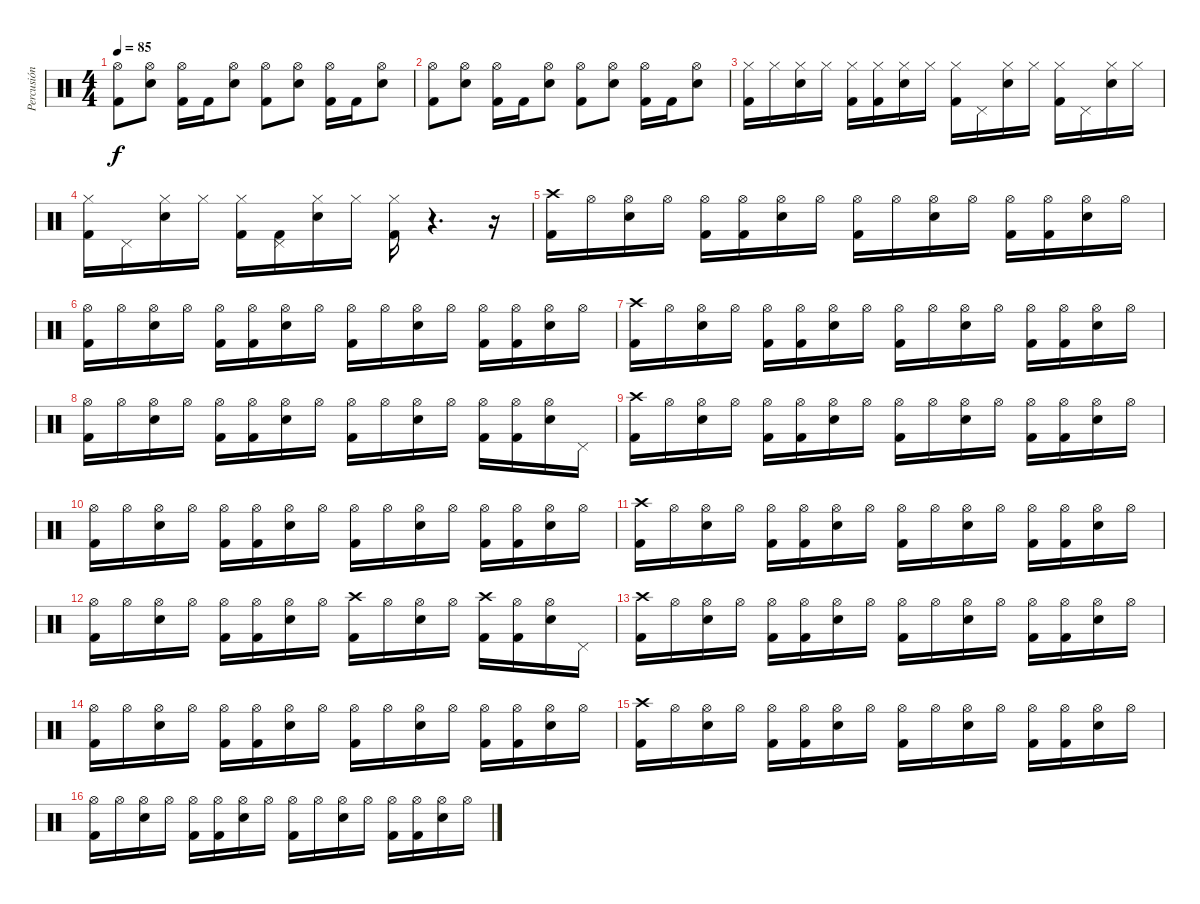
\track ("Percusión" "Percusión") {instrument percussion}
\staff {score}
\articulation defaults
\ts (4 4)
\tempo 85
\clef neutral
\ks c
("Hi-Hat (open)" "Kick (hit) 2").8{dy f} ("Hi-Hat (open)" "Electric Snare (hit)").8 ("Hi-Hat (open)" "Kick (hit) 2").16 "Kick (hit) 2".16 ("Hi-Hat (open)" "Electric Snare (hit)").8 ("Hi-Hat (open)" "Kick (hit) 2").8 ("Hi-Hat (open)" "Electric Snare (hit)").8 ("Hi-Hat (open)" "Kick (hit) 2").16 "Kick (hit) 2".16 ("Hi-Hat (open)" "Electric Snare (hit)").8 |
("Hi-Hat (open)" "Kick (hit) 2").8 ("Hi-Hat (open)" "Electric Snare (hit)").8 ("Hi-Hat (open)" "Kick (hit) 2").16 "Kick (hit) 2".16 ("Hi-Hat (open)" "Electric Snare (hit)").8 ("Hi-Hat (open)" "Kick (hit) 2").8 ("Hi-Hat (open)" "Electric Snare (hit)").8 ("Hi-Hat (open)" "Kick (hit) 2").16 "Kick (hit) 2".16 ("Hi-Hat (open)" "Electric Snare (hit)").8 |
("Hi-Hat (closed)" "Kick (hit) 2").16 "Hi-Hat (closed)".16 ("Hi-Hat (closed)" "Electric Snare (hit)").16 "Hi-Hat (closed)".16 ("Hi-Hat (closed)" "Kick (hit) 2").16 ("Hi-Hat (closed)" "Kick (hit) 2").16 ("Hi-Hat (closed)" "Electric Snare (hit)").16 "Hi-Hat (closed)".16 ("Hi-Hat (closed)" "Kick (hit) 2").16 "Pedal Hi-Hat (hit)".16 ("Hi-Hat (closed)" "Electric Snare (hit)").16 "Hi-Hat (closed)".16 ("Hi-Hat (closed)" "Kick (hit) 2").16 "Pedal Hi-Hat (hit)".16 ("Hi-Hat (closed)" "Electric Snare (hit)").16 "Hi-Hat (closed)".16 |
("Hi-Hat (closed)" "Kick (hit) 2").16 "Pedal Hi-Hat (hit)".16 ("Hi-Hat (closed)" "Electric Snare (hit)").16 "Hi-Hat (closed)".16 ("Hi-Hat (closed)" "Kick (hit) 2").16 ("Pedal Hi-Hat (hit)" "Kick (hit) 2").16 ("Hi-Hat (closed)" "Electric Snare (hit)").16 "Hi-Hat (closed)".16 ("Hi-Hat (closed)" "Kick (hit) 2").16 r.4{d} r.16 |
("Crash high (hit)" "Kick (hit) 2").16 "Hi-Hat (open)".16 ("Hi-Hat (open)" "Electric Snare (hit)").16 "Hi-Hat (open)".16 ("Hi-Hat (open)" "Kick (hit) 2").16 ("Hi-Hat (open)" "Kick (hit) 2").16 ("Hi-Hat (open)" "Electric Snare (hit)").16 "Hi-Hat (open)".16 ("Hi-Hat (open)" "Kick (hit) 2").16 "Hi-Hat (open)".16 ("Hi-Hat (open)" "Electric Snare (hit)").16 "Hi-Hat (open)".16 ("Hi-Hat (open)" "Kick (hit) 2").16 ("Hi-Hat (open)" "Kick (hit) 2").16 ("Hi-Hat (open)" "Electric Snare (hit)").16 "Hi-Hat (open)".16 |
("Hi-Hat (open)" "Kick (hit) 2").16 "Hi-Hat (open)".16 ("Hi-Hat (open)" "Electric Snare (hit)").16 "Hi-Hat (open)".16 ("Hi-Hat (open)" "Kick (hit) 2").16 ("Hi-Hat (open)" "Kick (hit) 2").16 ("Hi-Hat (open)" "Electric Snare (hit)").16 "Hi-Hat (open)".16 ("Hi-Hat (open)" "Kick (hit) 2").16 "Hi-Hat (open)".16 ("Hi-Hat (open)" "Electric Snare (hit)").16 "Hi-Hat (open)".16 ("Hi-Hat (open)" "Kick (hit) 2").16 ("Hi-Hat (open)" "Kick (hit) 2").16 ("Hi-Hat (open)" "Electric Snare (hit)").16 "Hi-Hat (open)".16 |
("Crash high (hit)" "Kick (hit) 2").16 "Hi-Hat (open)".16 ("Hi-Hat (open)" "Electric Snare (hit)").16 "Hi-Hat (open)".16 ("Hi-Hat (open)" "Kick (hit) 2").16 ("Hi-Hat (open)" "Kick (hit) 2").16 ("Hi-Hat (open)" "Electric Snare (hit)").16 "Hi-Hat (open)".16 ("Hi-Hat (open)" "Kick (hit) 2").16 "Hi-Hat (open)".16 ("Hi-Hat (open)" "Electric Snare (hit)").16 "Hi-Hat (open)".16 ("Hi-Hat (open)" "Kick (hit) 2").16 ("Hi-Hat (open)" "Kick (hit) 2").16 ("Hi-Hat (open)" "Electric Snare (hit)").16 "Hi-Hat (open)".16 |
("Hi-Hat (open)" "Kick (hit) 2").16 "Hi-Hat (open)".16 ("Hi-Hat (open)" "Electric Snare (hit)").16 "Hi-Hat (open)".16 ("Hi-Hat (open)" "Kick (hit) 2").16 ("Hi-Hat (open)" "Kick (hit) 2").16 ("Hi-Hat (open)" "Electric Snare (hit)").16 "Hi-Hat (open)".16 ("Hi-Hat (open)" "Kick (hit) 2").16 "Hi-Hat (open)".16 ("Hi-Hat (open)" "Electric Snare (hit)").16 "Hi-Hat (open)".16 ("Hi-Hat (open)" "Kick (hit) 2").16 ("Hi-Hat (open)" "Kick (hit) 2").16 ("Hi-Hat (open)" "Electric Snare (hit)").16 "Pedal Hi-Hat (hit)".16 |
("Crash high (hit)" "Kick (hit) 2").16 "Hi-Hat (open)".16 ("Hi-Hat (open)" "Electric Snare (hit)").16 "Hi-Hat (open)".16 ("Hi-Hat (open)" "Kick (hit) 2").16 ("Hi-Hat (open)" "Kick (hit) 2").16 ("Hi-Hat (open)" "Electric Snare (hit)").16 "Hi-Hat (open)".16 ("Hi-Hat (open)" "Kick (hit) 2").16 "Hi-Hat (open)".16 ("Hi-Hat (open)" "Electric Snare (hit)").16 "Hi-Hat (open)".16 ("Hi-Hat (open)" "Kick (hit) 2").16 ("Hi-Hat (open)" "Kick (hit) 2").16 ("Hi-Hat (open)" "Electric Snare (hit)").16 "Hi-Hat (open)".16 |
("Hi-Hat (open)" "Kick (hit) 2").16 "Hi-Hat (open)".16 ("Hi-Hat (open)" "Electric Snare (hit)").16 "Hi-Hat (open)".16 ("Hi-Hat (open)" "Kick (hit) 2").16 ("Hi-Hat (open)" "Kick (hit) 2").16 ("Hi-Hat (open)" "Electric Snare (hit)").16 "Hi-Hat (open)".16 ("Hi-Hat (open)" "Kick (hit) 2").16 "Hi-Hat (open)".16 ("Hi-Hat (open)" "Electric Snare (hit)").16 "Hi-Hat (open)".16 ("Hi-Hat (open)" "Kick (hit) 2").16 ("Hi-Hat (open)" "Kick (hit) 2").16 ("Hi-Hat (open)" "Electric Snare (hit)").16 "Hi-Hat (open)".16 |
("Crash high (hit)" "Kick (hit) 2").16 "Hi-Hat (open)".16 ("Hi-Hat (open)" "Electric Snare (hit)").16 "Hi-Hat (open)".16 ("Hi-Hat (open)" "Kick (hit) 2").16 ("Hi-Hat (open)" "Kick (hit) 2").16 ("Hi-Hat (open)" "Electric Snare (hit)").16 "Hi-Hat (open)".16 ("Hi-Hat (open)" "Kick (hit) 2").16 "Hi-Hat (open)".16 ("Hi-Hat (open)" "Electric Snare (hit)").16 "Hi-Hat (open)".16 ("Hi-Hat (open)" "Kick (hit) 2").16 ("Hi-Hat (open)" "Kick (hit) 2").16 ("Hi-Hat (open)" "Electric Snare (hit)").16 "Hi-Hat (open)".16 |
("Hi-Hat (open)" "Kick (hit) 2").16 "Hi-Hat (open)".16 ("Hi-Hat (open)" "Electric Snare (hit)").16 "Hi-Hat (open)".16 ("Hi-Hat (open)" "Kick (hit) 2").16 ("Hi-Hat (open)" "Kick (hit) 2").16 ("Hi-Hat (open)" "Electric Snare (hit)").16 "Hi-Hat (open)".16 ("Crash high (hit)" "Kick (hit) 2").16 "Hi-Hat (open)".16 ("Hi-Hat (open)" "Electric Snare (hit)").16 "Hi-Hat (open)".16 ("Crash high (hit)" "Kick (hit) 2").16 ("Hi-Hat (open)" "Kick (hit) 2").16 ("Hi-Hat (open)" "Electric Snare (hit)").16 "Pedal Hi-Hat (hit)".16 |
("Crash high (hit)" "Kick (hit) 2").16 "Hi-Hat (open)".16 ("Hi-Hat (open)" "Electric Snare (hit)").16 "Hi-Hat (open)".16 ("Hi-Hat (open)" "Kick (hit) 2").16 ("Hi-Hat (open)" "Kick (hit) 2").16 ("Hi-Hat (open)" "Electric Snare (hit)").16 "Hi-Hat (open)".16 ("Hi-Hat (open)" "Kick (hit) 2").16 "Hi-Hat (open)".16 ("Hi-Hat (open)" "Electric Snare (hit)").16 "Hi-Hat (open)".16 ("Hi-Hat (open)" "Kick (hit) 2").16 ("Hi-Hat (open)" "Kick (hit) 2").16 ("Hi-Hat (open)" "Electric Snare (hit)").16 "Hi-Hat (open)".16 |
("Hi-Hat (open)" "Kick (hit) 2").16 "Hi-Hat (open)".16 ("Hi-Hat (open)" "Electric Snare (hit)").16 "Hi-Hat (open)".16 ("Hi-Hat (open)" "Kick (hit) 2").16 ("Hi-Hat (open)" "Kick (hit) 2").16 ("Hi-Hat (open)" "Electric Snare (hit)").16 "Hi-Hat (open)".16 ("Hi-Hat (open)" "Kick (hit) 2").16 "Hi-Hat (open)".16 ("Hi-Hat (open)" "Electric Snare (hit)").16 "Hi-Hat (open)".16 ("Hi-Hat (open)" "Kick (hit) 2").16 ("Hi-Hat (open)" "Kick (hit) 2").16 ("Hi-Hat (open)" "Electric Snare (hit)").16 "Hi-Hat (open)".16 |
("Crash high (hit)" "Kick (hit) 2").16 "Hi-Hat (open)".16 ("Hi-Hat (open)" "Electric Snare (hit)").16 "Hi-Hat (open)".16 ("Hi-Hat (open)" "Kick (hit) 2").16 ("Hi-Hat (open)" "Kick (hit) 2").16 ("Hi-Hat (open)" "Electric Snare (hit)").16 "Hi-Hat (open)".16 ("Hi-Hat (open)" "Kick (hit) 2").16 "Hi-Hat (open)".16 ("Hi-Hat (open)" "Electric Snare (hit)").16 "Hi-Hat (open)".16 ("Hi-Hat (open)" "Kick (hit) 2").16 ("Hi-Hat (open)" "Kick (hit) 2").16 ("Hi-Hat (open)" "Electric Snare (hit)").16 "Hi-Hat (open)".16 |
("Hi-Hat (open)" "Kick (hit) 2").16 "Hi-Hat (open)".16 ("Hi-Hat (open)" "Electric Snare (hit)").16 "Hi-Hat (open)".16 ("Hi-Hat (open)" "Kick (hit) 2").16 ("Hi-Hat (open)" "Kick (hit) 2").16 ("Hi-Hat (open)" "Electric Snare (hit)").16 "Hi-Hat (open)".16 ("Hi-Hat (open)" "Kick (hit) 2").16 "Hi-Hat (open)".16 ("Hi-Hat (open)" "Electric Snare (hit)").16 "Hi-Hat (open)".16 ("Hi-Hat (open)" "Kick (hit) 2").16 ("Hi-Hat (open)" "Kick (hit) 2").16 ("Hi-Hat (open)" "Electric Snare (hit)").16 "Hi-Hat (open)".16
